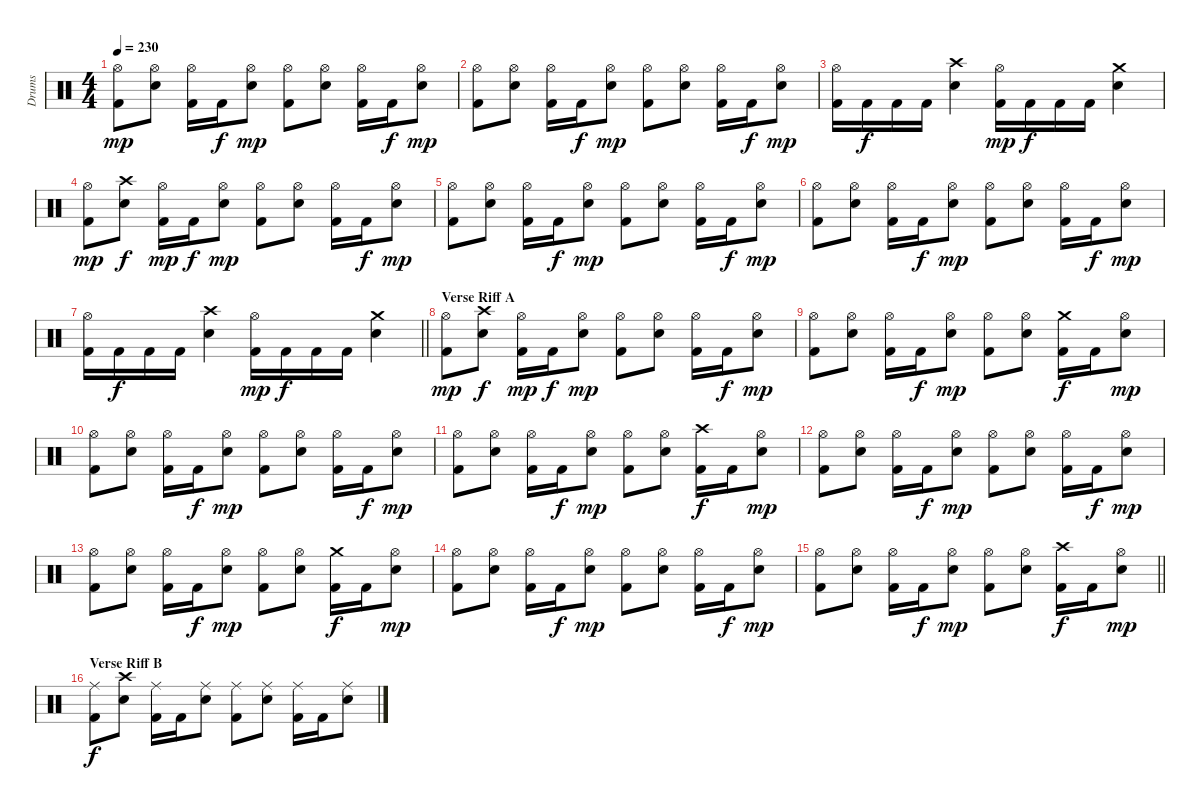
\track ("Drums" "Drums") {instrument percussion}
\staff {score}
\articulation defaults
\ts (4 4)
\tempo 230
\clef neutral
\ks c
("Hi-Hat (open)" "Kick (hit) 2").8{dy mp} ("Hi-Hat (open)" "Snare (hit) 2").8 ("Hi-Hat (open)" "Kick (hit) 2").16 "Kick (hit) 2".16{dy f} ("Hi-Hat (open)" "Snare (hit) 2").8{dy mp} ("Hi-Hat (open)" "Kick (hit) 2").8 ("Hi-Hat (open)" "Snare (hit) 2").8 ("Hi-Hat (open)" "Kick (hit) 2").16 "Kick (hit) 2".16{dy f} ("Hi-Hat (open)" "Snare (hit) 2").8{dy mp} |
("Hi-Hat (open)" "Kick (hit) 2").8 ("Hi-Hat (open)" "Snare (hit) 2").8 ("Hi-Hat (open)" "Kick (hit) 2").16 "Kick (hit) 2".16{dy f} ("Hi-Hat (open)" "Snare (hit) 2").8{dy mp} ("Hi-Hat (open)" "Kick (hit) 2").8 ("Hi-Hat (open)" "Snare (hit) 2").8 ("Hi-Hat (open)" "Kick (hit) 2").16 "Kick (hit) 2".16{dy f} ("Hi-Hat (open)" "Snare (hit) 2").8{dy mp} |
("Hi-Hat (open)" "Kick (hit) 2").16 "Kick (hit) 2".16{dy f} "Kick (hit) 2".16 "Kick (hit) 2".16 ("Crash high (hit)" "Snare (hit) 2").4 ("Hi-Hat (open)" "Kick (hit) 2").16{dy mp} "Kick (hit) 2".16{dy f} "Kick (hit) 2".16 "Kick (hit) 2".16 ("Crash medium (hit)" "Snare (hit) 2").4 |
("Hi-Hat (open)" "Kick (hit) 2").8{dy mp} ("Crash high (hit)" "Snare (hit) 2").8{dy f} ("Hi-Hat (open)" "Kick (hit) 2").16{dy mp} "Kick (hit) 2".16{dy f} ("Hi-Hat (open)" "Snare (hit) 2").8{dy mp} ("Hi-Hat (open)" "Kick (hit) 2").8 ("Hi-Hat (open)" "Snare (hit) 2").8 ("Hi-Hat (open)" "Kick (hit) 2").16 "Kick (hit) 2".16{dy f} ("Hi-Hat (open)" "Snare (hit) 2").8{dy mp} |
("Hi-Hat (open)" "Kick (hit) 2").8 ("Hi-Hat (open)" "Snare (hit) 2").8 ("Hi-Hat (open)" "Kick (hit) 2").16 "Kick (hit) 2".16{dy f} ("Hi-Hat (open)" "Snare (hit) 2").8{dy mp} ("Hi-Hat (open)" "Kick (hit) 2").8 ("Hi-Hat (open)" "Snare (hit) 2").8 ("Hi-Hat (open)" "Kick (hit) 2").16 "Kick (hit) 2".16{dy f} ("Hi-Hat (open)" "Snare (hit) 2").8{dy mp} |
("Hi-Hat (open)" "Kick (hit) 2").8 ("Hi-Hat (open)" "Snare (hit) 2").8 ("Hi-Hat (open)" "Kick (hit) 2").16 "Kick (hit) 2".16{dy f} ("Hi-Hat (open)" "Snare (hit) 2").8{dy mp} ("Hi-Hat (open)" "Kick (hit) 2").8 ("Hi-Hat (open)" "Snare (hit) 2").8 ("Hi-Hat (open)" "Kick (hit) 2").16 "Kick (hit) 2".16{dy f} ("Hi-Hat (open)" "Snare (hit) 2").8{dy mp} |
\barLineRight lightlight
("Hi-Hat (open)" "Kick (hit) 2").16 "Kick (hit) 2".16{dy f} "Kick (hit) 2".16 "Kick (hit) 2".16 ("Crash high (hit)" "Snare (hit) 2").4 ("Hi-Hat (open)" "Kick (hit) 2").16{dy mp} "Kick (hit) 2".16{dy f} "Kick (hit) 2".16 "Kick (hit) 2".16 ("Crash medium (hit)" "Snare (hit) 2").4 |
\section ("" "Verse Riff A")
("Hi-Hat (open)" "Kick (hit) 2").8{dy mp} ("Crash high (hit)" "Snare (hit) 2").8{dy f} ("Hi-Hat (open)" "Kick (hit) 2").16{dy mp} "Kick (hit) 2".16{dy f} ("Hi-Hat (open)" "Snare (hit) 2").8{dy mp} ("Hi-Hat (open)" "Kick (hit) 2").8 ("Hi-Hat (open)" "Snare (hit) 2").8 ("Hi-Hat (open)" "Kick (hit) 2").16 "Kick (hit) 2".16{dy f} ("Hi-Hat (open)" "Snare (hit) 2").8{dy mp} |
("Hi-Hat (open)" "Kick (hit) 2").8 ("Hi-Hat (open)" "Snare (hit) 2").8 ("Hi-Hat (open)" "Kick (hit) 2").16 "Kick (hit) 2".16{dy f} ("Hi-Hat (open)" "Snare (hit) 2").8{dy mp} ("Hi-Hat (open)" "Kick (hit) 2").8 ("Hi-Hat (open)" "Snare (hit) 2").8 ("Crash medium (hit)" "Kick (hit) 2").16{dy f} "Kick (hit) 2".16 ("Hi-Hat (open)" "Snare (hit) 2").8{dy mp} |
("Hi-Hat (open)" "Kick (hit) 2").8 ("Hi-Hat (open)" "Snare (hit) 2").8 ("Hi-Hat (open)" "Kick (hit) 2").16 "Kick (hit) 2".16{dy f} ("Hi-Hat (open)" "Snare (hit) 2").8{dy mp} ("Hi-Hat (open)" "Kick (hit) 2").8 ("Hi-Hat (open)" "Snare (hit) 2").8 ("Hi-Hat (open)" "Kick (hit) 2").16 "Kick (hit) 2".16{dy f} ("Hi-Hat (open)" "Snare (hit) 2").8{dy mp} |
("Hi-Hat (open)" "Kick (hit) 2").8 ("Hi-Hat (open)" "Snare (hit) 2").8 ("Hi-Hat (open)" "Kick (hit) 2").16 "Kick (hit) 2".16{dy f} ("Hi-Hat (open)" "Snare (hit) 2").8{dy mp} ("Hi-Hat (open)" "Kick (hit) 2").8 ("Hi-Hat (open)" "Snare (hit) 2").8 ("Crash high (hit)" "Kick (hit) 2").16{dy f} "Kick (hit) 2".16 ("Hi-Hat (open)" "Snare (hit) 2").8{dy mp} |
("Hi-Hat (open)" "Kick (hit) 2").8 ("Hi-Hat (open)" "Snare (hit) 2").8 ("Hi-Hat (open)" "Kick (hit) 2").16 "Kick (hit) 2".16{dy f} ("Hi-Hat (open)" "Snare (hit) 2").8{dy mp} ("Hi-Hat (open)" "Kick (hit) 2").8 ("Hi-Hat (open)" "Snare (hit) 2").8 ("Hi-Hat (open)" "Kick (hit) 2").16 "Kick (hit) 2".16{dy f} ("Hi-Hat (open)" "Snare (hit) 2").8{dy mp} |
("Hi-Hat (open)" "Kick (hit) 2").8 ("Hi-Hat (open)" "Snare (hit) 2").8 ("Hi-Hat (open)" "Kick (hit) 2").16 "Kick (hit) 2".16{dy f} ("Hi-Hat (open)" "Snare (hit) 2").8{dy mp} ("Hi-Hat (open)" "Kick (hit) 2").8 ("Hi-Hat (open)" "Snare (hit) 2").8 ("Crash medium (hit)" "Kick (hit) 2").16{dy f} "Kick (hit) 2".16 ("Hi-Hat (open)" "Snare (hit) 2").8{dy mp} |
("Hi-Hat (open)" "Kick (hit) 2").8 ("Hi-Hat (open)" "Snare (hit) 2").8 ("Hi-Hat (open)" "Kick (hit) 2").16 "Kick (hit) 2".16{dy f} ("Hi-Hat (open)" "Snare (hit) 2").8{dy mp} ("Hi-Hat (open)" "Kick (hit) 2").8 ("Hi-Hat (open)" "Snare (hit) 2").8 ("Hi-Hat (open)" "Kick (hit) 2").16 "Kick (hit) 2".16{dy f} ("Hi-Hat (open)" "Snare (hit) 2").8{dy mp} |
\barLineRight lightlight
("Hi-Hat (open)" "Kick (hit) 2").8 ("Hi-Hat (open)" "Snare (hit) 2").8 ("Hi-Hat (open)" "Kick (hit) 2").16 "Kick (hit) 2".16{dy f} ("Hi-Hat (open)" "Snare (hit) 2").8{dy mp} ("Hi-Hat (open)" "Kick (hit) 2").8 ("Hi-Hat (open)" "Snare (hit) 2").8 ("Crash high (hit)" "Kick (hit) 2").16{dy f} "Kick (hit) 2".16 ("Hi-Hat (open)" "Snare (hit) 2").8{dy mp} |
\section ("" "Verse Riff B")
("Ride (middle)" "Kick (hit) 2").8{dy f} ("Crash high (hit)" "Snare (hit) 2").8 ("Ride (middle)" "Kick (hit) 2").16 "Kick (hit) 2".16 ("Ride (middle)" "Snare (hit) 2").8 ("Ride (middle)" "Kick (hit) 2").8 ("Ride (middle)" "Snare (hit) 2").8 ("Ride (middle)" "Kick (hit) 2").16 "Kick (hit) 2".16 ("Ride (middle)" "Snare (hit) 2").8
